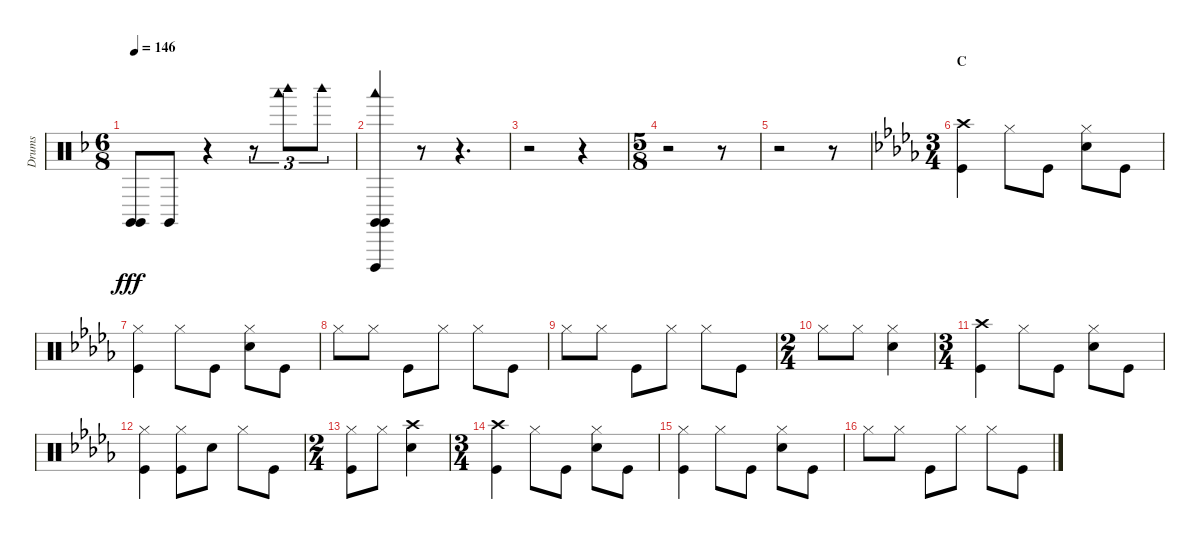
\track ("Drums" "Drums") {instrument percussion}
\staff {score}
\articulation defaults
\ts (6 8)
\tempo 146
\clef neutral
\ks f
("Claves (hit)" "Claves (hit)").8{dy fff} "Claves (hit)".8 r.4 r.8{tu (3 2)} ("Woodblock high (hit)" "Woodblock low (hit)").8{tu (3 2)} "Woodblock high (hit)".8{tu (3 2)} |
("Cuica (open)" "Woodblock low (hit)" "Claves (hit)" "Claves (hit)").4 r.8 r.4{d} |
r.2 r.4 |
\ts (5 8)
r.2 r.8 |
r.2 r.8 |
\ts (3 4)
\section ("" "C")
\ks db
("Crash high (hit)" "Kick (hit)").4 "Hi-Hat (closed)".8 "Kick (hit)".8 ("Hi-Hat (closed)" "Snare (hit) 2").8 "Kick (hit)".8 |
("Hi-Hat (closed)" "Kick (hit)").4 "Hi-Hat (closed)".8 "Kick (hit)".8 ("Hi-Hat (closed)" "Snare (hit) 2").8 "Kick (hit)".8 |
"Hi-Hat (closed)".8 "Hi-Hat (closed)".8 "Kick (hit)".8 "Hi-Hat (closed)".8 "Hi-Hat (closed)".8 "Kick (hit)".8 |
"Hi-Hat (closed)".8 "Hi-Hat (closed)".8 "Kick (hit)".8 "Hi-Hat (closed)".8 "Hi-Hat (closed)".8 "Kick (hit)".8 |
\ts (2 4)
"Hi-Hat (closed)".8 "Hi-Hat (closed)".8 ("Hi-Hat (closed)" "Snare (hit) 2").4 |
\ts (3 4)
("Crash high (hit)" "Kick (hit)").4 "Hi-Hat (closed)".8 "Kick (hit)".8 ("Hi-Hat (closed)" "Snare (hit) 2").8 "Kick (hit)".8 |
("Hi-Hat (closed)" "Kick (hit)").4 ("Hi-Hat (closed)" "Kick (hit)").8 "Snare (hit) 2".8 "Hi-Hat (closed)".8 "Kick (hit)".8 |
\ts (2 4)
("Hi-Hat (closed)" "Kick (hit)").8 "Hi-Hat (closed)".8 ("Crash high (hit)" "Snare (hit) 2").4 |
\ts (3 4)
("Crash high (hit)" "Kick (hit)").4 "Hi-Hat (closed)".8 "Kick (hit)".8 ("Hi-Hat (closed)" "Snare (hit) 2").8 "Kick (hit)".8 |
("Hi-Hat (closed)" "Kick (hit)").4 "Hi-Hat (closed)".8 "Kick (hit)".8 ("Hi-Hat (closed)" "Snare (hit) 2").8 "Kick (hit)".8 |
"Hi-Hat (closed)".8 "Hi-Hat (closed)".8 "Kick (hit)".8 "Hi-Hat (closed)".8 "Hi-Hat (closed)".8 "Kick (hit)".8
